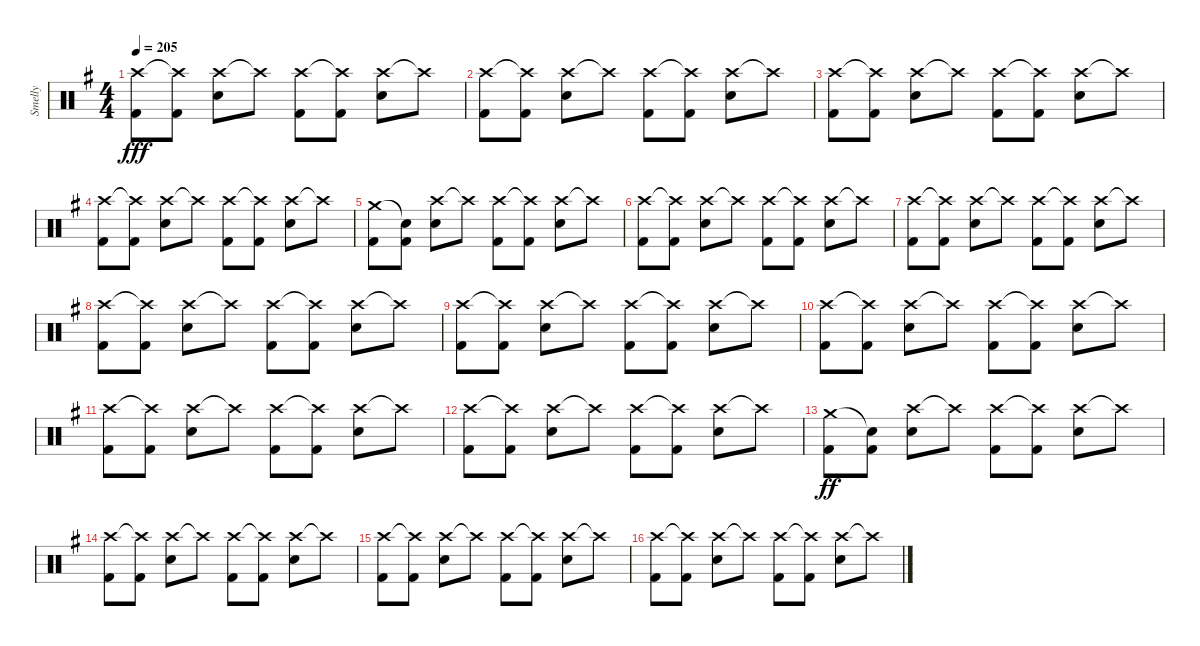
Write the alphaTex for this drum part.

\track ("Smelly" "Smelly") {instrument percussion}
\staff {score}
\articulation defaults
\ts (4 4)
\tempo 205
\clef neutral
\ks eminor
("Crash high (hit)" "Kick (hit) 2").8{dy fff} ("Crash high (hit)"{t} "Kick (hit) 2").8 ("Crash high (hit)" "Electric Snare (hit)").8 "Crash high (hit)"{t}.8 ("Crash high (hit)" "Kick (hit) 2").8 ("Crash high (hit)"{t} "Kick (hit) 2").8 ("Crash high (hit)" "Electric Snare (hit)").8 "Crash high (hit)"{t}.8 |
("Crash high (hit)" "Kick (hit) 2").8 ("Crash high (hit)"{t} "Kick (hit) 2").8 ("Crash high (hit)" "Electric Snare (hit)").8 "Crash high (hit)"{t}.8 ("Crash high (hit)" "Kick (hit) 2").8 ("Crash high (hit)"{t} "Kick (hit) 2").8 ("Crash high (hit)" "Electric Snare (hit)").8 "Crash high (hit)"{t}.8 |
("Crash high (hit)" "Kick (hit) 2").8 ("Crash high (hit)"{t} "Kick (hit) 2").8 ("Crash high (hit)" "Electric Snare (hit)").8 "Crash high (hit)"{t}.8 ("Crash high (hit)" "Kick (hit) 2").8 ("Crash high (hit)"{t} "Kick (hit) 2").8 ("Crash high (hit)" "Electric Snare (hit)").8 "Crash high (hit)"{t}.8 |
("Crash high (hit)" "Kick (hit) 2").8 ("Crash high (hit)"{t} "Kick (hit) 2").8 ("Crash high (hit)" "Electric Snare (hit)").8 "Crash high (hit)"{t}.8 ("Crash high (hit)" "Kick (hit) 2").8 ("Crash high (hit)"{t} "Kick (hit) 2").8 ("Crash high (hit)" "Electric Snare (hit)").8 "Crash high (hit)"{t}.8 |
("Crash medium (hit)" "Kick (hit) 2").8 ("Snare (hit)"{t} "Kick (hit) 2").8 ("Crash high (hit)" "Electric Snare (hit)").8 "Crash high (hit)"{t}.8 ("Crash high (hit)" "Kick (hit) 2").8 ("Crash high (hit)"{t} "Kick (hit) 2").8 ("Crash high (hit)" "Electric Snare (hit)").8 "Crash high (hit)"{t}.8 |
("Crash high (hit)" "Kick (hit) 2").8 ("Crash high (hit)"{t} "Kick (hit) 2").8 ("Crash high (hit)" "Electric Snare (hit)").8 "Crash high (hit)"{t}.8 ("Crash high (hit)" "Kick (hit) 2").8 ("Crash high (hit)"{t} "Kick (hit) 2").8 ("Crash high (hit)" "Electric Snare (hit)").8 "Crash high (hit)"{t}.8 |
("Crash high (hit)" "Kick (hit) 2").8 ("Crash high (hit)"{t} "Kick (hit) 2").8 ("Crash high (hit)" "Electric Snare (hit)").8 "Crash high (hit)"{t}.8 ("Crash high (hit)" "Kick (hit) 2").8 ("Crash high (hit)"{t} "Kick (hit) 2").8 ("Crash high (hit)" "Electric Snare (hit)").8 "Crash high (hit)"{t}.8 |
("Crash high (hit)" "Kick (hit) 2").8 ("Crash high (hit)"{t} "Kick (hit) 2").8 ("Crash high (hit)" "Electric Snare (hit)").8 "Crash high (hit)"{t}.8 ("Crash high (hit)" "Kick (hit) 2").8 ("Crash high (hit)"{t} "Kick (hit) 2").8 ("Crash high (hit)" "Electric Snare (hit)").8 "Crash high (hit)"{t}.8 |
("Crash high (hit)" "Kick (hit) 2").8 ("Crash high (hit)"{t} "Kick (hit) 2").8 ("Crash high (hit)" "Electric Snare (hit)").8 "Crash high (hit)"{t}.8 ("Crash high (hit)" "Kick (hit) 2").8 ("Crash high (hit)"{t} "Kick (hit) 2").8 ("Crash high (hit)" "Electric Snare (hit)").8 "Crash high (hit)"{t}.8 |
("Crash high (hit)" "Kick (hit) 2").8 ("Crash high (hit)"{t} "Kick (hit) 2").8 ("Crash high (hit)" "Electric Snare (hit)").8 "Crash high (hit)"{t}.8 ("Crash high (hit)" "Kick (hit) 2").8 ("Crash high (hit)"{t} "Kick (hit) 2").8 ("Crash high (hit)" "Electric Snare (hit)").8 "Crash high (hit)"{t}.8 |
("Crash high (hit)" "Kick (hit) 2").8 ("Crash high (hit)"{t} "Kick (hit) 2").8 ("Crash high (hit)" "Electric Snare (hit)").8 "Crash high (hit)"{t}.8 ("Crash high (hit)" "Kick (hit) 2").8 ("Crash high (hit)"{t} "Kick (hit) 2").8 ("Crash high (hit)" "Electric Snare (hit)").8 "Crash high (hit)"{t}.8 |
("Crash high (hit)" "Kick (hit) 2").8 ("Crash high (hit)"{t} "Kick (hit) 2").8 ("Crash high (hit)" "Electric Snare (hit)").8 "Crash high (hit)"{t}.8 ("Crash high (hit)" "Kick (hit) 2").8 ("Crash high (hit)"{t} "Kick (hit) 2").8 ("Crash high (hit)" "Electric Snare (hit)").8 "Crash high (hit)"{t}.8 |
("Crash medium (hit)" "Kick (hit) 2").8{dy ff} ("Snare (hit)"{t} "Kick (hit) 2").8 ("Crash high (hit)" "Electric Snare (hit)").8 "Crash high (hit)"{t}.8 ("Crash high (hit)" "Kick (hit) 2").8 ("Crash high (hit)"{t} "Kick (hit) 2").8 ("Crash high (hit)" "Electric Snare (hit)").8 "Crash high (hit)"{t}.8 |
("Crash high (hit)" "Kick (hit) 2").8 ("Crash high (hit)"{t} "Kick (hit) 2").8 ("Crash high (hit)" "Electric Snare (hit)").8 "Crash high (hit)"{t}.8 ("Crash high (hit)" "Kick (hit) 2").8 ("Crash high (hit)"{t} "Kick (hit) 2").8 ("Crash high (hit)" "Electric Snare (hit)").8 "Crash high (hit)"{t}.8 |
("Crash high (hit)" "Kick (hit) 2").8 ("Crash high (hit)"{t} "Kick (hit) 2").8 ("Crash high (hit)" "Electric Snare (hit)").8 "Crash high (hit)"{t}.8 ("Crash high (hit)" "Kick (hit) 2").8 ("Crash high (hit)"{t} "Kick (hit) 2").8 ("Crash high (hit)" "Electric Snare (hit)").8 "Crash high (hit)"{t}.8 |
("Crash high (hit)" "Kick (hit) 2").8 ("Crash high (hit)"{t} "Kick (hit) 2").8 ("Crash high (hit)" "Electric Snare (hit)").8 "Crash high (hit)"{t}.8 ("Crash high (hit)" "Kick (hit) 2").8 ("Crash high (hit)"{t} "Kick (hit) 2").8 ("Crash high (hit)" "Electric Snare (hit)").8 "Crash high (hit)"{t}.8
